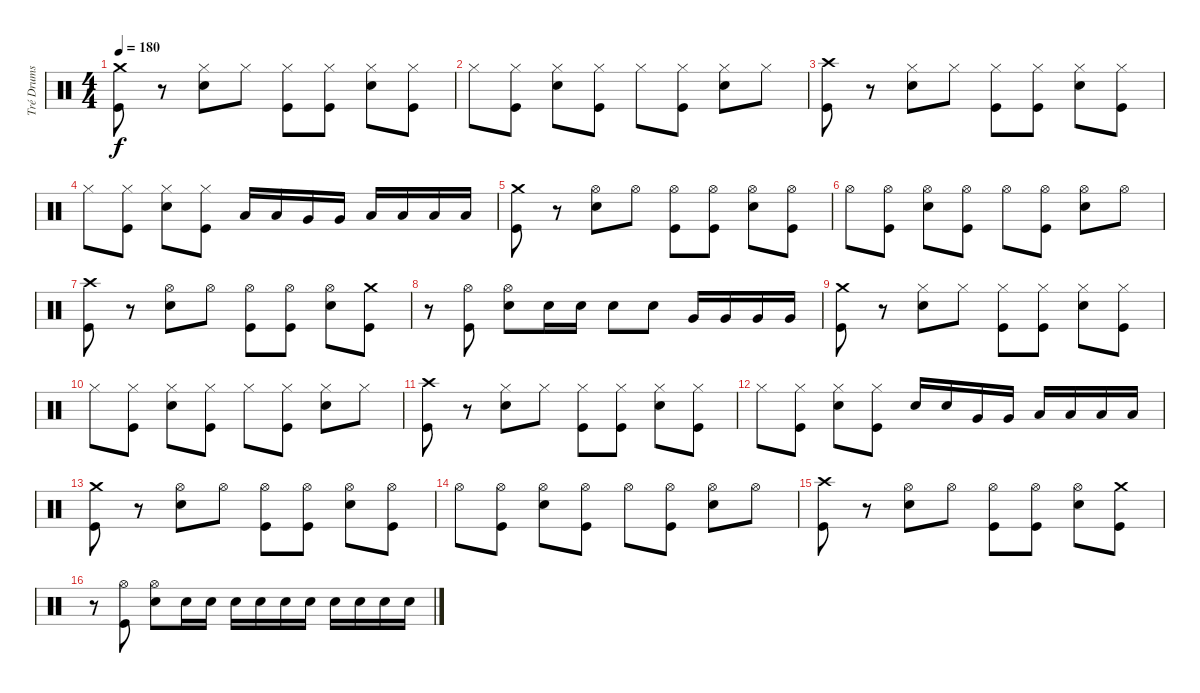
\track ("Tré Drums" "Tré Drums") {instrument percussion}
\staff {score}
\articulation defaults
\ts (4 4)
\tempo 180
\clef neutral
\ks c
("Crash medium (hit)" "Kick (hit)").8{dy f} r.8 ("Hi-Hat (closed)" "Electric Snare (hit)").8 "Hi-Hat (closed)".8 ("Hi-Hat (closed)" "Kick (hit)").8 ("Hi-Hat (closed)" "Kick (hit)").8 ("Hi-Hat (closed)" "Electric Snare (hit)").8 ("Hi-Hat (closed)" "Kick (hit)").8 |
"Hi-Hat (closed)".8 ("Hi-Hat (closed)" "Kick (hit)").8 ("Hi-Hat (closed)" "Electric Snare (hit)").8 ("Hi-Hat (closed)" "Kick (hit)").8 "Hi-Hat (closed)".8 ("Hi-Hat (closed)" "Kick (hit)").8 ("Hi-Hat (closed)" "Electric Snare (hit)").8 "Hi-Hat (closed)".8 |
("Crash high (hit)" "Kick (hit)").8 r.8 ("Hi-Hat (closed)" "Electric Snare (hit)").8 "Hi-Hat (closed)".8 ("Hi-Hat (closed)" "Kick (hit)").8 ("Hi-Hat (closed)" "Kick (hit)").8 ("Hi-Hat (closed)" "Electric Snare (hit)").8 ("Hi-Hat (closed)" "Kick (hit)").8 |
"Hi-Hat (closed)".8 ("Hi-Hat (closed)" "Kick (hit)").8 ("Hi-Hat (closed)" "Electric Snare (hit)").8 ("Hi-Hat (closed)" "Kick (hit)").8 "Low Tom (hit)".16 "Low Tom (hit)".16 "Very Low Tom (hit)".16 "Very Low Tom (hit)".16 "Low Tom (hit)".16 "Low Tom (hit)".16 "Low Floor Tom (hit)".16 "Low Floor Tom (hit)".16 |
("Crash medium (hit)" "Kick (hit)").8 r.8 ("Hi-Hat (open)" "Electric Snare (hit)").8 "Hi-Hat (open)".8 ("Hi-Hat (open)" "Kick (hit)").8 ("Hi-Hat (open)" "Kick (hit)").8 ("Hi-Hat (open)" "Electric Snare (hit)").8 ("Hi-Hat (open)" "Kick (hit)").8 |
"Hi-Hat (open)".8 ("Hi-Hat (open)" "Kick (hit)").8 ("Hi-Hat (open)" "Electric Snare (hit)").8 ("Hi-Hat (open)" "Kick (hit)").8 "Hi-Hat (open)".8 ("Hi-Hat (open)" "Kick (hit)").8 ("Hi-Hat (open)" "Electric Snare (hit)").8 "Hi-Hat (open)".8 |
("Crash high (hit)" "Kick (hit)").8 r.8 ("Hi-Hat (open)" "Electric Snare (hit)").8 "Hi-Hat (open)".8 ("Hi-Hat (open)" "Kick (hit)").8 ("Hi-Hat (open)" "Kick (hit)").8 ("Hi-Hat (open)" "Electric Snare (hit)").8 ("Crash medium (hit)" "Kick (hit)").8 |
r.8 ("Hi-Hat (open)" "Kick (hit)").8 ("Hi-Hat (open)" "Electric Snare (hit)").8 "Electric Snare (hit)".16 "Electric Snare (hit)".16 "Electric Snare (hit)".8 "Electric Snare (hit)".8 "Very Low Tom (hit)".16 "Very Low Tom (hit)".16 "Very Low Tom (hit)".16 "Very Low Tom (hit)".16 |
("Crash medium (hit)" "Kick (hit)").8 r.8 ("Hi-Hat (closed)" "Electric Snare (hit)").8 "Hi-Hat (closed)".8 ("Hi-Hat (closed)" "Kick (hit)").8 ("Hi-Hat (closed)" "Kick (hit)").8 ("Hi-Hat (closed)" "Electric Snare (hit)").8 ("Hi-Hat (closed)" "Kick (hit)").8 |
"Hi-Hat (closed)".8 ("Hi-Hat (closed)" "Kick (hit)").8 ("Hi-Hat (closed)" "Electric Snare (hit)").8 ("Hi-Hat (closed)" "Kick (hit)").8 "Hi-Hat (closed)".8 ("Hi-Hat (closed)" "Kick (hit)").8 ("Hi-Hat (closed)" "Electric Snare (hit)").8 "Hi-Hat (closed)".8 |
("Crash high (hit)" "Kick (hit)").8 r.8 ("Hi-Hat (closed)" "Electric Snare (hit)").8 "Hi-Hat (closed)".8 ("Hi-Hat (closed)" "Kick (hit)").8 ("Hi-Hat (closed)" "Kick (hit)").8 ("Hi-Hat (closed)" "Electric Snare (hit)").8 ("Hi-Hat (closed)" "Kick (hit)").8 |
"Hi-Hat (closed)".8 ("Hi-Hat (closed)" "Kick (hit)").8 ("Hi-Hat (closed)" "Electric Snare (hit)").8 ("Hi-Hat (closed)" "Kick (hit)").8 "Electric Snare (hit)".16 "Electric Snare (hit)".16 "Very Low Tom (hit)".16 "Very Low Tom (hit)".16 "Low Tom (hit)".16 "Low Tom (hit)".16 "Low Floor Tom (hit)".16 "Low Floor Tom (hit)".16 |
("Crash medium (hit)" "Kick (hit)").8 r.8 ("Hi-Hat (open)" "Electric Snare (hit)").8 "Hi-Hat (open)".8 ("Hi-Hat (open)" "Kick (hit)").8 ("Hi-Hat (open)" "Kick (hit)").8 ("Hi-Hat (open)" "Electric Snare (hit)").8 ("Hi-Hat (open)" "Kick (hit)").8 |
"Hi-Hat (open)".8 ("Hi-Hat (open)" "Kick (hit)").8 ("Hi-Hat (open)" "Electric Snare (hit)").8 ("Hi-Hat (open)" "Kick (hit)").8 "Hi-Hat (open)".8 ("Hi-Hat (open)" "Kick (hit)").8 ("Hi-Hat (open)" "Electric Snare (hit)").8 "Hi-Hat (open)".8 |
("Crash high (hit)" "Kick (hit)").8 r.8 ("Hi-Hat (open)" "Electric Snare (hit)").8 "Hi-Hat (open)".8 ("Hi-Hat (open)" "Kick (hit)").8 ("Hi-Hat (open)" "Kick (hit)").8 ("Hi-Hat (open)" "Electric Snare (hit)").8 ("Crash medium (hit)" "Kick (hit)").8 |
r.8 ("Hi-Hat (open)" "Kick (hit)").8 ("Hi-Hat (open)" "Electric Snare (hit)").8 "Electric Snare (hit)".16 "Electric Snare (hit)".16 "Electric Snare (hit)".16 "Electric Snare (hit)".16 "Electric Snare (hit)".16 "Electric Snare (hit)".16 "Electric Snare (hit)".16 "Electric Snare (hit)".16 "Electric Snare (hit)".16 "Electric Snare (hit)".16
